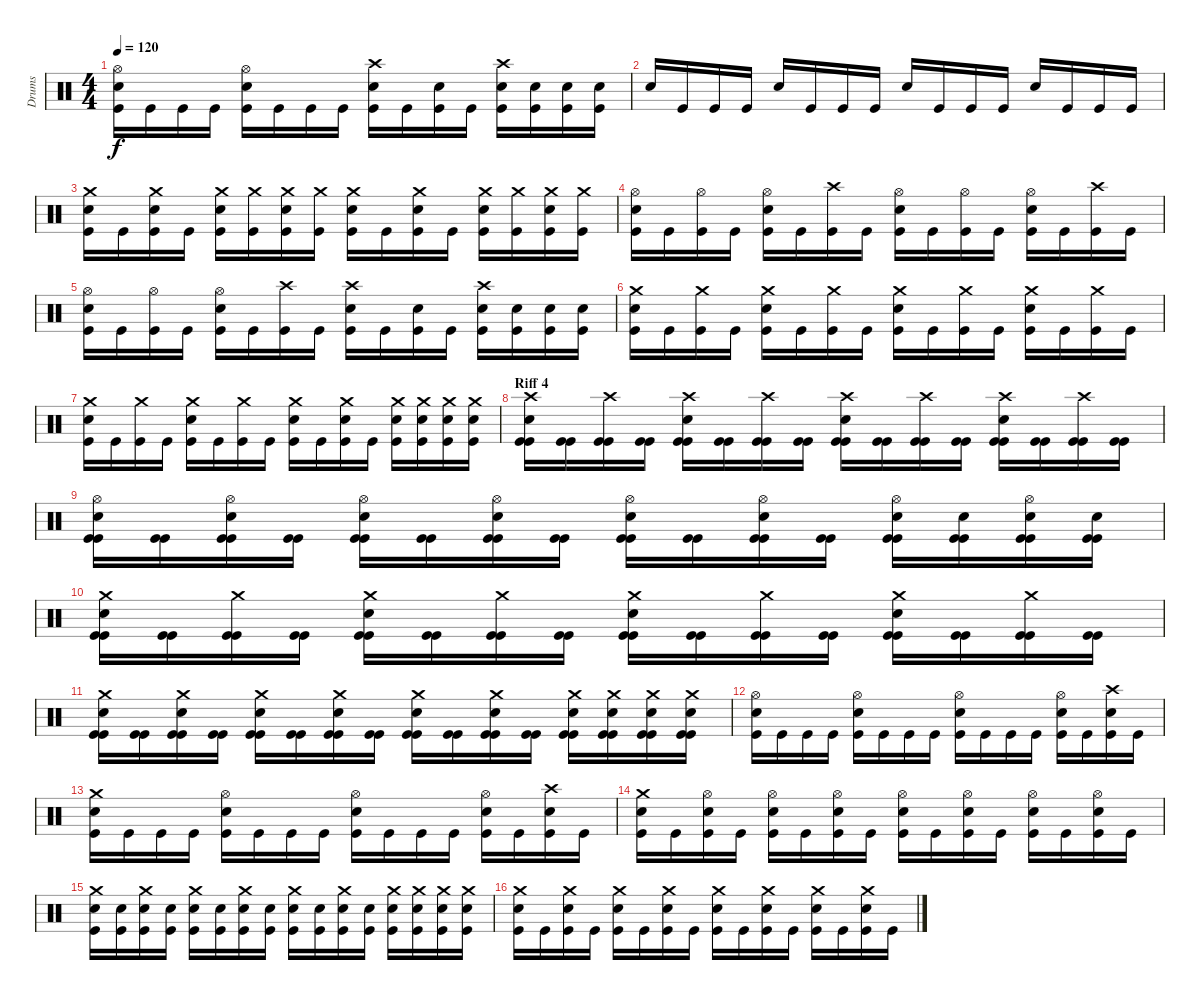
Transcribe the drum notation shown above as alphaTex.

\track ("Drums" "Drums") {instrument percussion}
\staff {score}
\articulation defaults
\ts (4 4)
\tempo 120
\clef neutral
\ks c
("Hi-Hat (open)" "Snare (hit) 2" "Kick (hit)").16{dy f} "Kick (hit)".16 "Kick (hit)".16 "Kick (hit)".16 ("Hi-Hat (open)" "Snare (hit) 2" "Kick (hit)").16 "Kick (hit)".16 "Kick (hit)".16 "Kick (hit)".16 ("Crash high (hit)" "Snare (hit) 2" "Kick (hit)").16 "Kick (hit)".16 ("Snare (hit) 2" "Kick (hit)").16 "Kick (hit)".16 ("Crash high (hit)" "Snare (hit) 2" "Kick (hit)").16 ("Snare (hit) 2" "Kick (hit)").16 ("Snare (hit) 2" "Kick (hit)").16 ("Snare (hit) 2" "Kick (hit)").16 |
"Snare (hit) 2".16 "Kick (hit)".16 "Kick (hit)".16 "Kick (hit)".16 "Snare (hit) 2".16 "Kick (hit)".16 "Kick (hit)".16 "Kick (hit)".16 "Snare (hit) 2".16 "Kick (hit)".16 "Kick (hit)".16 "Kick (hit)".16 "Snare (hit) 2".16 "Kick (hit)".16 "Kick (hit)".16 "Kick (hit)".16 |
("Crash medium (hit)" "Snare (hit) 2" "Kick (hit)").16 "Kick (hit)".16 ("Crash medium (hit)" "Snare (hit) 2" "Kick (hit)").16 "Kick (hit)".16 ("Crash medium (hit)" "Snare (hit) 2" "Kick (hit)").16 ("Crash medium (hit)" "Kick (hit)").16 ("Crash medium (hit)" "Snare (hit) 2" "Kick (hit)").16 ("Crash medium (hit)" "Kick (hit)").16 ("Crash medium (hit)" "Snare (hit) 2" "Kick (hit)").16 "Kick (hit)".16 ("Crash medium (hit)" "Snare (hit) 2" "Kick (hit)").16 "Kick (hit)".16 ("Crash medium (hit)" "Snare (hit) 2" "Kick (hit)").16 ("Crash medium (hit)" "Kick (hit)").16 ("Crash medium (hit)" "Snare (hit) 2" "Kick (hit)").16 ("Crash medium (hit)" "Kick (hit)").16 |
("Hi-Hat (open)" "Snare (hit) 2" "Kick (hit)").16 "Kick (hit)".16 ("Hi-Hat (open)" "Kick (hit)").16 "Kick (hit)".16 ("Hi-Hat (open)" "Snare (hit) 2" "Kick (hit)").16 "Kick (hit)".16 ("Crash high (hit)" "Kick (hit)").16 "Kick (hit)".16 ("Hi-Hat (open)" "Snare (hit) 2" "Kick (hit)").16 "Kick (hit)".16 ("Hi-Hat (open)" "Kick (hit)").16 "Kick (hit)".16 ("Hi-Hat (open)" "Snare (hit) 2" "Kick (hit)").16 "Kick (hit)".16 ("Crash high (hit)" "Kick (hit)").16 "Kick (hit)".16 |
("Hi-Hat (open)" "Snare (hit) 2" "Kick (hit)").16 "Kick (hit)".16 ("Hi-Hat (open)" "Kick (hit)").16 "Kick (hit)".16 ("Hi-Hat (open)" "Snare (hit) 2" "Kick (hit)").16 "Kick (hit)".16 ("Crash high (hit)" "Kick (hit)").16 "Kick (hit)".16 ("Crash high (hit)" "Snare (hit) 2" "Kick (hit)").16 "Kick (hit)".16 ("Snare (hit) 2" "Kick (hit)").16 "Kick (hit)".16 ("Crash high (hit)" "Snare (hit) 2" "Kick (hit)").16 ("Snare (hit) 2" "Kick (hit)").16 ("Snare (hit) 2" "Kick (hit)").16 ("Snare (hit) 2" "Kick (hit)").16 |
("Crash medium (hit)" "Snare (hit) 2" "Kick (hit)").16 "Kick (hit)".16 ("Crash medium (hit)" "Kick (hit)").16 "Kick (hit)".16 ("Crash medium (hit)" "Snare (hit) 2" "Kick (hit)").16 "Kick (hit)".16 ("Crash medium (hit)" "Kick (hit)").16 "Kick (hit)".16 ("Crash medium (hit)" "Snare (hit) 2" "Kick (hit)").16 "Kick (hit)".16 ("Crash medium (hit)" "Kick (hit)").16 "Kick (hit)".16 ("Crash medium (hit)" "Snare (hit) 2" "Kick (hit)").16 "Kick (hit)".16 ("Crash medium (hit)" "Kick (hit)").16 "Kick (hit)".16 |
("Crash medium (hit)" "Snare (hit) 2" "Kick (hit)").16 "Kick (hit)".16 ("Crash medium (hit)" "Kick (hit)").16 "Kick (hit)".16 ("Crash medium (hit)" "Snare (hit) 2" "Kick (hit)").16 "Kick (hit)".16 ("Crash medium (hit)" "Kick (hit)").16 "Kick (hit)".16 ("Crash medium (hit)" "Snare (hit) 2" "Kick (hit)").16 "Kick (hit)".16 ("Crash medium (hit)" "Snare (hit) 2" "Kick (hit)").16 "Kick (hit)".16 ("Crash medium (hit)" "Snare (hit) 2" "Kick (hit)").16 ("Crash medium (hit)" "Snare (hit) 2" "Kick (hit)").16 ("Crash medium (hit)" "Snare (hit) 2" "Kick (hit)").16 ("Crash medium (hit)" "Snare (hit) 2" "Kick (hit)").16 |
\section ("" "Riff 4")
("Crash high (hit)" "Snare (hit) 2" "Kick (hit)" "Kick (hit)").16 ("Kick (hit)" "Kick (hit)").16 ("Crash high (hit)" "Kick (hit)" "Kick (hit)").16 ("Kick (hit)" "Kick (hit)").16 ("Crash high (hit)" "Snare (hit) 2" "Kick (hit)" "Kick (hit)").16 ("Kick (hit)" "Kick (hit)").16 ("Crash high (hit)" "Kick (hit)" "Kick (hit)").16 ("Kick (hit)" "Kick (hit)").16 ("Crash high (hit)" "Snare (hit) 2" "Kick (hit)" "Kick (hit)").16 ("Kick (hit)" "Kick (hit)").16 ("Crash high (hit)" "Kick (hit)" "Kick (hit)").16 ("Kick (hit)" "Kick (hit)").16 ("Crash high (hit)" "Snare (hit) 2" "Kick (hit)" "Kick (hit)").16 ("Kick (hit)" "Kick (hit)").16 ("Crash high (hit)" "Kick (hit)" "Kick (hit)").16 ("Kick (hit)" "Kick (hit)").16 |
("Hi-Hat (open)" "Snare (hit) 2" "Kick (hit)" "Kick (hit)").16 ("Kick (hit)" "Kick (hit)").16 ("Hi-Hat (open)" "Snare (hit) 2" "Kick (hit)" "Kick (hit)").16 ("Kick (hit)" "Kick (hit)").16 ("Hi-Hat (open)" "Snare (hit) 2" "Kick (hit)" "Kick (hit)").16 ("Kick (hit)" "Kick (hit)").16 ("Hi-Hat (open)" "Snare (hit) 2" "Kick (hit)" "Kick (hit)").16 ("Kick (hit)" "Kick (hit)").16 ("Hi-Hat (open)" "Snare (hit) 2" "Kick (hit)" "Kick (hit)").16 ("Kick (hit)" "Kick (hit)").16 ("Hi-Hat (open)" "Snare (hit) 2" "Kick (hit)" "Kick (hit)").16 ("Kick (hit)" "Kick (hit)").16 ("Hi-Hat (open)" "Snare (hit) 2" "Kick (hit)" "Kick (hit)").16 ("Snare (hit) 2" "Kick (hit)" "Kick (hit)").16 ("Hi-Hat (open)" "Snare (hit) 2" "Kick (hit)" "Kick (hit)").16 ("Snare (hit) 2" "Kick (hit)" "Kick (hit)").16 |
("Crash medium (hit)" "Snare (hit) 2" "Kick (hit)" "Kick (hit)").16 ("Kick (hit)" "Kick (hit)").16 ("Crash medium (hit)" "Kick (hit)" "Kick (hit)").16 ("Kick (hit)" "Kick (hit)").16 ("Crash medium (hit)" "Snare (hit) 2" "Kick (hit)" "Kick (hit)").16 ("Kick (hit)" "Kick (hit)").16 ("Crash medium (hit)" "Kick (hit)" "Kick (hit)").16 ("Kick (hit)" "Kick (hit)").16 ("Crash medium (hit)" "Snare (hit) 2" "Kick (hit)" "Kick (hit)").16 ("Kick (hit)" "Kick (hit)").16 ("Crash medium (hit)" "Kick (hit)" "Kick (hit)").16 ("Kick (hit)" "Kick (hit)").16 ("Crash medium (hit)" "Snare (hit) 2" "Kick (hit)" "Kick (hit)").16 ("Kick (hit)" "Kick (hit)").16 ("Crash medium (hit)" "Kick (hit)" "Kick (hit)").16 ("Kick (hit)" "Kick (hit)").16 |
("Crash medium (hit)" "Snare (hit) 2" "Kick (hit)" "Kick (hit)").16 ("Kick (hit)" "Kick (hit)").16 ("Crash medium (hit)" "Snare (hit) 2" "Kick (hit)" "Kick (hit)").16 ("Kick (hit)" "Kick (hit)").16 ("Crash medium (hit)" "Snare (hit) 2" "Kick (hit)" "Kick (hit)").16 ("Kick (hit)" "Kick (hit)").16 ("Crash medium (hit)" "Snare (hit) 2" "Kick (hit)" "Kick (hit)").16 ("Kick (hit)" "Kick (hit)").16 ("Crash medium (hit)" "Snare (hit) 2" "Kick (hit)" "Kick (hit)").16 ("Kick (hit)" "Kick (hit)").16 ("Crash medium (hit)" "Snare (hit) 2" "Kick (hit)" "Kick (hit)").16 ("Kick (hit)" "Kick (hit)").16 ("Crash medium (hit)" "Snare (hit) 2" "Kick (hit)" "Kick (hit)").16 ("Crash medium (hit)" "Snare (hit) 2" "Kick (hit)" "Kick (hit)").16 ("Crash medium (hit)" "Snare (hit) 2" "Kick (hit)" "Kick (hit)").16 ("Crash medium (hit)" "Snare (hit) 2" "Kick (hit)" "Kick (hit)").16 |
("Hi-Hat (open)" "Snare (hit) 2" "Kick (hit)").16 "Kick (hit)".16 "Kick (hit)".16 "Kick (hit)".16 ("Hi-Hat (open)" "Snare (hit) 2" "Kick (hit)").16 "Kick (hit)".16 "Kick (hit)".16 "Kick (hit)".16 ("Hi-Hat (open)" "Snare (hit) 2" "Kick (hit)").16 "Kick (hit)".16 "Kick (hit)".16 "Kick (hit)".16 ("Hi-Hat (open)" "Snare (hit) 2" "Kick (hit)").16 "Kick (hit)".16 ("Crash high (hit)" "Snare (hit) 2" "Kick (hit)").16 "Kick (hit)".16 |
("Crash medium (hit)" "Snare (hit) 2" "Kick (hit)").16 "Kick (hit)".16 "Kick (hit)".16 "Kick (hit)".16 ("Hi-Hat (open)" "Snare (hit) 2" "Kick (hit)").16 "Kick (hit)".16 "Kick (hit)".16 "Kick (hit)".16 ("Hi-Hat (open)" "Snare (hit) 2" "Kick (hit)").16 "Kick (hit)".16 "Kick (hit)".16 "Kick (hit)".16 ("Hi-Hat (open)" "Snare (hit) 2" "Kick (hit)").16 "Kick (hit)".16 ("Crash high (hit)" "Snare (hit) 2" "Kick (hit)").16 "Kick (hit)".16 |
("Crash medium (hit)" "Snare (hit) 2" "Kick (hit)").16 "Kick (hit)".16 ("Hi-Hat (open)" "Snare (hit) 2" "Kick (hit)").16 "Kick (hit)".16 ("Hi-Hat (open)" "Snare (hit) 2" "Kick (hit)").16 "Kick (hit)".16 ("Hi-Hat (open)" "Snare (hit) 2" "Kick (hit)").16 "Kick (hit)".16 ("Hi-Hat (open)" "Snare (hit) 2" "Kick (hit)").16 "Kick (hit)".16 ("Hi-Hat (open)" "Snare (hit) 2" "Kick (hit)").16 "Kick (hit)".16 ("Hi-Hat (open)" "Snare (hit) 2" "Kick (hit)").16 "Kick (hit)".16 ("Hi-Hat (open)" "Snare (hit) 2" "Kick (hit)").16 "Kick (hit)".16 |
("Crash medium (hit)" "Snare (hit) 2" "Kick (hit)").16 ("Snare (hit) 2" "Kick (hit)").16 ("Crash medium (hit)" "Snare (hit) 2" "Kick (hit)").16 ("Snare (hit) 2" "Kick (hit)").16 ("Crash medium (hit)" "Snare (hit) 2" "Kick (hit)").16 ("Snare (hit) 2" "Kick (hit)").16 ("Crash medium (hit)" "Snare (hit) 2" "Kick (hit)").16 ("Snare (hit) 2" "Kick (hit)").16 ("Crash medium (hit)" "Snare (hit) 2" "Kick (hit)").16 ("Snare (hit) 2" "Kick (hit)").16 ("Crash medium (hit)" "Snare (hit) 2" "Kick (hit)").16 ("Snare (hit) 2" "Kick (hit)").16 ("Crash medium (hit)" "Snare (hit) 2" "Kick (hit)").16 ("Crash medium (hit)" "Snare (hit) 2" "Kick (hit)").16 ("Crash medium (hit)" "Snare (hit) 2" "Kick (hit)").16 ("Crash medium (hit)" "Snare (hit) 2" "Kick (hit)").16 |
("Crash medium (hit)" "Snare (hit) 2" "Kick (hit)").16 "Kick (hit)".16 ("Crash medium (hit)" "Snare (hit) 2" "Kick (hit)").16 "Kick (hit)".16 ("Crash medium (hit)" "Snare (hit) 2" "Kick (hit)").16 "Kick (hit)".16 ("Crash medium (hit)" "Snare (hit) 2" "Kick (hit)").16 "Kick (hit)".16 ("Crash medium (hit)" "Snare (hit) 2" "Kick (hit)").16 "Kick (hit)".16 ("Crash medium (hit)" "Snare (hit) 2" "Kick (hit)").16 "Kick (hit)".16 ("Crash medium (hit)" "Snare (hit) 2" "Kick (hit)").16 "Kick (hit)".16 ("Crash medium (hit)" "Snare (hit) 2" "Kick (hit)").16 "Kick (hit)".16
